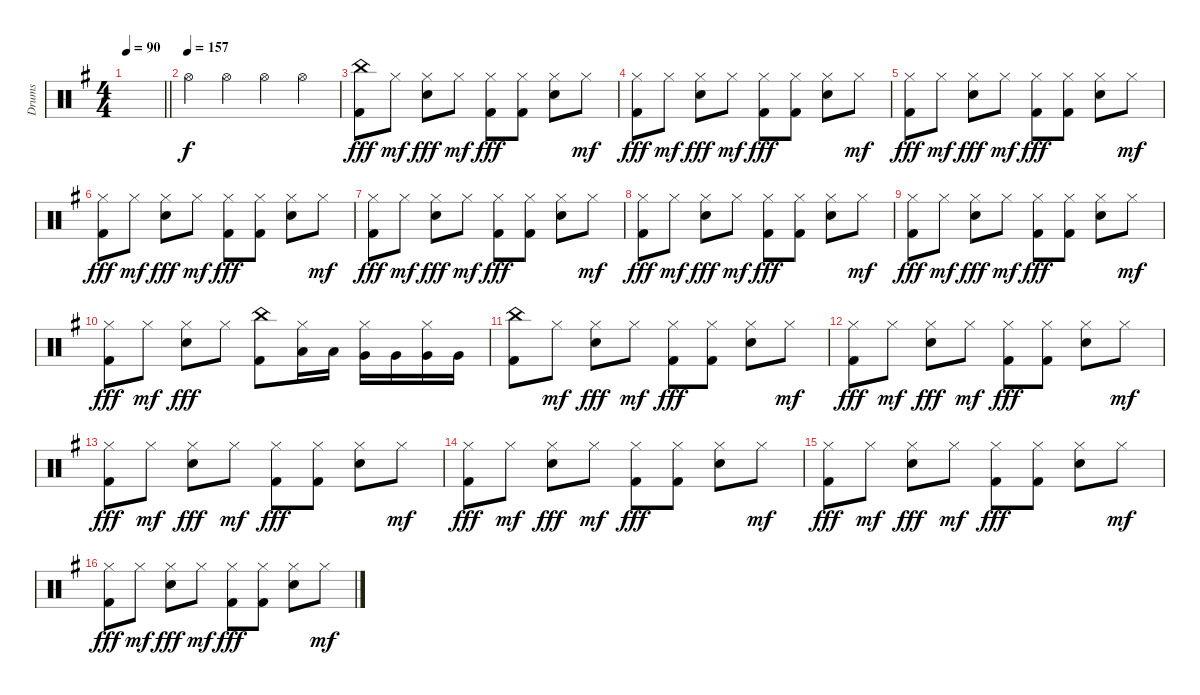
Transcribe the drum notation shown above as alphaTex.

\track ("Drums" "Drums") {instrument percussion}
\staff {score}
\articulation defaults
\ts (4 4)
\tempo 90
\clef neutral
\barLineRight lightlight
\ks g
|
\tempo (157)
"Hi-Hat (open)".4 "Hi-Hat (open)".4 "Hi-Hat (open)".4 "Hi-Hat (open)".4 |
("China (hit)" "Kick (hit) 2").8{dy fff} "Hi-Hat (closed)".8{dy mf} ("Electric Snare (hit)" "Hi-Hat (closed)").8{dy fff} "Hi-Hat (closed)".8{dy mf} ("Hi-Hat (closed)" "Kick (hit) 2").8{dy fff} ("Hi-Hat (closed)" "Kick (hit) 2").8 ("Electric Snare (hit)" "Hi-Hat (closed)").8 "Hi-Hat (closed)".8{dy mf} |
("Hi-Hat (closed)" "Kick (hit) 2").8{dy fff} "Hi-Hat (closed)".8{dy mf} ("Electric Snare (hit)" "Hi-Hat (closed)").8{dy fff} "Hi-Hat (closed)".8{dy mf} ("Hi-Hat (closed)" "Kick (hit) 2").8{dy fff} ("Hi-Hat (closed)" "Kick (hit) 2").8 ("Electric Snare (hit)" "Hi-Hat (closed)").8 "Hi-Hat (closed)".8{dy mf} |
("Hi-Hat (closed)" "Kick (hit) 2").8{dy fff} "Hi-Hat (closed)".8{dy mf} ("Electric Snare (hit)" "Hi-Hat (closed)").8{dy fff} "Hi-Hat (closed)".8{dy mf} ("Hi-Hat (closed)" "Kick (hit) 2").8{dy fff} ("Hi-Hat (closed)" "Kick (hit) 2").8 ("Electric Snare (hit)" "Hi-Hat (closed)").8 "Hi-Hat (closed)".8{dy mf} |
("Hi-Hat (closed)" "Kick (hit) 2").8{dy fff} "Hi-Hat (closed)".8{dy mf} ("Electric Snare (hit)" "Hi-Hat (closed)").8{dy fff} "Hi-Hat (closed)".8{dy mf} ("Hi-Hat (closed)" "Kick (hit) 2").8{dy fff} ("Hi-Hat (closed)" "Kick (hit) 2").8 ("Electric Snare (hit)" "Hi-Hat (closed)").8 "Hi-Hat (closed)".8{dy mf} |
("Hi-Hat (closed)" "Kick (hit) 2").8{dy fff} "Hi-Hat (closed)".8{dy mf} ("Electric Snare (hit)" "Hi-Hat (closed)").8{dy fff} "Hi-Hat (closed)".8{dy mf} ("Hi-Hat (closed)" "Kick (hit) 2").8{dy fff} ("Hi-Hat (closed)" "Kick (hit) 2").8 ("Electric Snare (hit)" "Hi-Hat (closed)").8 "Hi-Hat (closed)".8{dy mf} |
("Hi-Hat (closed)" "Kick (hit) 2").8{dy fff} "Hi-Hat (closed)".8{dy mf} ("Electric Snare (hit)" "Hi-Hat (closed)").8{dy fff} "Hi-Hat (closed)".8{dy mf} ("Hi-Hat (closed)" "Kick (hit) 2").8{dy fff} ("Hi-Hat (closed)" "Kick (hit) 2").8 ("Electric Snare (hit)" "Hi-Hat (closed)").8 "Hi-Hat (closed)".8{dy mf} |
("Hi-Hat (closed)" "Kick (hit) 2").8{dy fff} "Hi-Hat (closed)".8{dy mf} ("Electric Snare (hit)" "Hi-Hat (closed)").8{dy fff} "Hi-Hat (closed)".8{dy mf} ("Hi-Hat (closed)" "Kick (hit) 2").8{dy fff} ("Hi-Hat (closed)" "Kick (hit) 2").8 ("Electric Snare (hit)" "Hi-Hat (closed)").8 "Hi-Hat (closed)".8{dy mf} |
("Hi-Hat (closed)" "Kick (hit) 2").8{dy fff} "Hi-Hat (closed)".8{dy mf} ("Electric Snare (hit)" "Hi-Hat (closed)").8{dy fff} "Hi-Hat (closed)".8 ("China (hit)" "Kick (hit) 2").8 ("Low Tom (hit)" "Hi-Hat (closed)").16 "Low Tom (hit)".16 ("Very Low Tom (hit)" "Hi-Hat (closed)").16 "Very Low Tom (hit)".16 ("Very Low Tom (hit)" "Hi-Hat (closed)").16 "Very Low Tom (hit)".16 |
("China (hit)" "Kick (hit) 2").8 "Hi-Hat (closed)".8{dy mf} ("Electric Snare (hit)" "Hi-Hat (closed)").8{dy fff} "Hi-Hat (closed)".8{dy mf} ("Hi-Hat (closed)" "Kick (hit) 2").8{dy fff} ("Hi-Hat (closed)" "Kick (hit) 2").8 ("Electric Snare (hit)" "Hi-Hat (closed)").8 "Hi-Hat (closed)".8{dy mf} |
("Hi-Hat (closed)" "Kick (hit) 2").8{dy fff} "Hi-Hat (closed)".8{dy mf} ("Electric Snare (hit)" "Hi-Hat (closed)").8{dy fff} "Hi-Hat (closed)".8{dy mf} ("Hi-Hat (closed)" "Kick (hit) 2").8{dy fff} ("Hi-Hat (closed)" "Kick (hit) 2").8 ("Electric Snare (hit)" "Hi-Hat (closed)").8 "Hi-Hat (closed)".8{dy mf} |
("Hi-Hat (closed)" "Kick (hit) 2").8{dy fff} "Hi-Hat (closed)".8{dy mf} ("Electric Snare (hit)" "Hi-Hat (closed)").8{dy fff} "Hi-Hat (closed)".8{dy mf} ("Hi-Hat (closed)" "Kick (hit) 2").8{dy fff} ("Hi-Hat (closed)" "Kick (hit) 2").8 ("Electric Snare (hit)" "Hi-Hat (closed)").8 "Hi-Hat (closed)".8{dy mf} |
("Hi-Hat (closed)" "Kick (hit) 2").8{dy fff} "Hi-Hat (closed)".8{dy mf} ("Electric Snare (hit)" "Hi-Hat (closed)").8{dy fff} "Hi-Hat (closed)".8{dy mf} ("Hi-Hat (closed)" "Kick (hit) 2").8{dy fff} ("Hi-Hat (closed)" "Kick (hit) 2").8 ("Electric Snare (hit)" "Hi-Hat (closed)").8 "Hi-Hat (closed)".8{dy mf} |
("Hi-Hat (closed)" "Kick (hit) 2").8{dy fff} "Hi-Hat (closed)".8{dy mf} ("Electric Snare (hit)" "Hi-Hat (closed)").8{dy fff} "Hi-Hat (closed)".8{dy mf} ("Hi-Hat (closed)" "Kick (hit) 2").8{dy fff} ("Hi-Hat (closed)" "Kick (hit) 2").8 ("Electric Snare (hit)" "Hi-Hat (closed)").8 "Hi-Hat (closed)".8{dy mf} |
("Hi-Hat (closed)" "Kick (hit) 2").8{dy fff} "Hi-Hat (closed)".8{dy mf} ("Electric Snare (hit)" "Hi-Hat (closed)").8{dy fff} "Hi-Hat (closed)".8{dy mf} ("Hi-Hat (closed)" "Kick (hit) 2").8{dy fff} ("Hi-Hat (closed)" "Kick (hit) 2").8 ("Electric Snare (hit)" "Hi-Hat (closed)").8 "Hi-Hat (closed)".8{dy mf}
